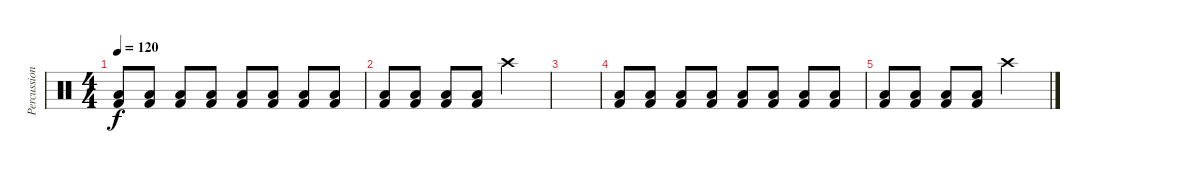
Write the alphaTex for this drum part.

\track ("Percussion" "Percussion") {instrument percussion}
\staff {score}
\articulation defaults
\ts (4 4)
\tempo 120
\clef neutral
\ks c
("Kick (hit) 2" "Low Tom (hit)").8{dy f} ("Kick (hit) 2" "Low Tom (hit)").8 ("Kick (hit) 2" "Low Tom (hit)").8 ("Kick (hit) 2" "Low Tom (hit)").8 ("Kick (hit) 2" "Low Tom (hit)").8 ("Kick (hit) 2" "Low Tom (hit)").8 ("Kick (hit) 2" "Low Tom (hit)").8 ("Kick (hit) 2" "Low Tom (hit)").8 |
("Kick (hit) 2" "Low Tom (hit)").8 ("Kick (hit) 2" "Low Tom (hit)").8 ("Kick (hit) 2" "Low Tom (hit)").8 ("Kick (hit) 2" "Low Tom (hit)").8 "Crash high (hit)".2 |
|
("Kick (hit) 2" "Low Tom (hit)").8 ("Kick (hit) 2" "Low Tom (hit)").8 ("Kick (hit) 2" "Low Tom (hit)").8 ("Kick (hit) 2" "Low Tom (hit)").8 ("Kick (hit) 2" "Low Tom (hit)").8 ("Kick (hit) 2" "Low Tom (hit)").8 ("Kick (hit) 2" "Low Tom (hit)").8 ("Kick (hit) 2" "Low Tom (hit)").8 |
("Kick (hit) 2" "Low Tom (hit)").8 ("Kick (hit) 2" "Low Tom (hit)").8 ("Kick (hit) 2" "Low Tom (hit)").8 ("Kick (hit) 2" "Low Tom (hit)").8 "Crash high (hit)".2
